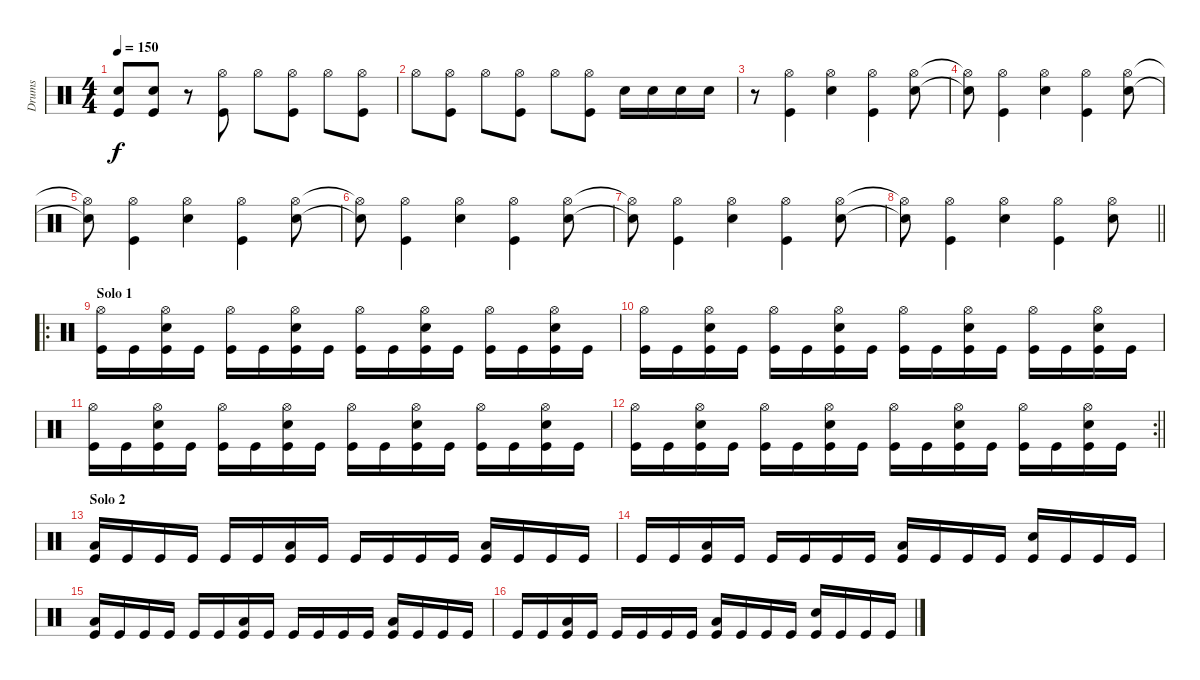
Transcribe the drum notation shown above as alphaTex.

\track ("Drums" "Drums") {instrument percussion}
\staff {score}
\articulation defaults
\ts (4 4)
\tempo 150
\clef neutral
\ks c
("Snare (hit) 2" "Kick (hit)").8{dy f} ("Snare (hit) 2" "Kick (hit)").8 r.8 ("Hi-Hat (open)" "Kick (hit)").8 "Hi-Hat (open)".8 ("Hi-Hat (open)" "Kick (hit)").8 "Hi-Hat (open)".8 ("Hi-Hat (open)" "Kick (hit)").8 |
"Hi-Hat (open)".8 ("Hi-Hat (open)" "Kick (hit)").8 "Hi-Hat (open)".8 ("Hi-Hat (open)" "Kick (hit)").8 "Hi-Hat (open)".8 ("Hi-Hat (open)" "Kick (hit)").8 "Snare (hit) 2".16 "Snare (hit) 2".16 "Snare (hit) 2".16 "Snare (hit) 2".16 |
r.8 ("Hi-Hat (open)" "Kick (hit)").4 ("Hi-Hat (open)" "Snare (hit) 2").4 ("Hi-Hat (open)" "Kick (hit)").4 ("Hi-Hat (open)" "Snare (hit) 2").8 |
("Hi-Hat (open)"{t} "Snare (hit) 2"{t}).8 ("Hi-Hat (open)" "Kick (hit)").4 ("Hi-Hat (open)" "Snare (hit) 2").4 ("Hi-Hat (open)" "Kick (hit)").4 ("Hi-Hat (open)" "Snare (hit) 2").8 |
("Hi-Hat (open)"{t} "Snare (hit) 2"{t}).8 ("Hi-Hat (open)" "Kick (hit)").4 ("Hi-Hat (open)" "Snare (hit) 2").4 ("Hi-Hat (open)" "Kick (hit)").4 ("Hi-Hat (open)" "Snare (hit) 2").8 |
("Hi-Hat (open)"{t} "Snare (hit) 2"{t}).8 ("Hi-Hat (open)" "Kick (hit)").4 ("Hi-Hat (open)" "Snare (hit) 2").4 ("Hi-Hat (open)" "Kick (hit)").4 ("Hi-Hat (open)" "Snare (hit) 2").8 |
("Hi-Hat (open)"{t} "Snare (hit) 2"{t}).8 ("Hi-Hat (open)" "Kick (hit)").4 ("Hi-Hat (open)" "Snare (hit) 2").4 ("Hi-Hat (open)" "Kick (hit)").4 ("Hi-Hat (open)" "Snare (hit) 2").8 |
\barLineRight lightlight
("Hi-Hat (open)"{t} "Snare (hit) 2"{t}).8 ("Hi-Hat (open)" "Kick (hit)").4 ("Hi-Hat (open)" "Snare (hit) 2").4 ("Hi-Hat (open)" "Kick (hit)").4 ("Hi-Hat (open)" "Snare (hit) 2").8 |
\ro
\section ("" "Solo 1")
("Hi-Hat (open)" "Kick (hit)").16 "Kick (hit)".16 ("Hi-Hat (open)" "Snare (hit) 2" "Kick (hit)").16 "Kick (hit)".16 ("Hi-Hat (open)" "Kick (hit)").16 "Kick (hit)".16 ("Hi-Hat (open)" "Snare (hit) 2" "Kick (hit)").16 "Kick (hit)".16 ("Hi-Hat (open)" "Kick (hit)").16 "Kick (hit)".16 ("Hi-Hat (open)" "Snare (hit) 2" "Kick (hit)").16 "Kick (hit)".16 ("Hi-Hat (open)" "Kick (hit)").16 "Kick (hit)".16 ("Hi-Hat (open)" "Snare (hit) 2" "Kick (hit)").16 "Kick (hit)".16 |
("Hi-Hat (open)" "Kick (hit)").16 "Kick (hit)".16 ("Hi-Hat (open)" "Snare (hit) 2" "Kick (hit)").16 "Kick (hit)".16 ("Hi-Hat (open)" "Kick (hit)").16 "Kick (hit)".16 ("Hi-Hat (open)" "Snare (hit) 2" "Kick (hit)").16 "Kick (hit)".16 ("Hi-Hat (open)" "Kick (hit)").16 "Kick (hit)".16 ("Hi-Hat (open)" "Snare (hit) 2" "Kick (hit)").16 "Kick (hit)".16 ("Hi-Hat (open)" "Kick (hit)").16 "Kick (hit)".16 ("Hi-Hat (open)" "Snare (hit) 2" "Kick (hit)").16 "Kick (hit)".16 |
("Hi-Hat (open)" "Kick (hit)").16 "Kick (hit)".16 ("Hi-Hat (open)" "Snare (hit) 2" "Kick (hit)").16 "Kick (hit)".16 ("Hi-Hat (open)" "Kick (hit)").16 "Kick (hit)".16 ("Hi-Hat (open)" "Snare (hit) 2" "Kick (hit)").16 "Kick (hit)".16 ("Hi-Hat (open)" "Kick (hit)").16 "Kick (hit)".16 ("Hi-Hat (open)" "Snare (hit) 2" "Kick (hit)").16 "Kick (hit)".16 ("Hi-Hat (open)" "Kick (hit)").16 "Kick (hit)".16 ("Hi-Hat (open)" "Snare (hit) 2" "Kick (hit)").16 "Kick (hit)".16 |
\rc 2
\barLineRight lightlight
("Hi-Hat (open)" "Kick (hit)").16 "Kick (hit)".16 ("Hi-Hat (open)" "Snare (hit) 2" "Kick (hit)").16 "Kick (hit)".16 ("Hi-Hat (open)" "Kick (hit)").16 "Kick (hit)".16 ("Hi-Hat (open)" "Snare (hit) 2" "Kick (hit)").16 "Kick (hit)".16 ("Hi-Hat (open)" "Kick (hit)").16 "Kick (hit)".16 ("Hi-Hat (open)" "Snare (hit) 2" "Kick (hit)").16 "Kick (hit)".16 ("Hi-Hat (open)" "Kick (hit)").16 "Kick (hit)".16 ("Hi-Hat (open)" "Snare (hit) 2" "Kick (hit)").16 "Kick (hit)".16 |
\section ("" "Solo 2")
("Low Floor Tom (hit)" "Kick (hit)").16 "Kick (hit)".16 "Kick (hit)".16 "Kick (hit)".16 "Kick (hit)".16 "Kick (hit)".16 ("Low Floor Tom (hit)" "Kick (hit)").16 "Kick (hit)".16 "Kick (hit)".16 "Kick (hit)".16 "Kick (hit)".16 "Kick (hit)".16 ("Low Floor Tom (hit)" "Kick (hit)").16 "Kick (hit)".16 "Kick (hit)".16 "Kick (hit)".16 |
"Kick (hit)".16 "Kick (hit)".16 ("Low Floor Tom (hit)" "Kick (hit)").16 "Kick (hit)".16 "Kick (hit)".16 "Kick (hit)".16 "Kick (hit)".16 "Kick (hit)".16 ("Low Floor Tom (hit)" "Kick (hit)").16 "Kick (hit)".16 "Kick (hit)".16 "Kick (hit)".16 ("Snare (hit) 2" "Kick (hit)").16 "Kick (hit)".16 "Kick (hit)".16 "Kick (hit)".16 |
("Low Floor Tom (hit)" "Kick (hit)").16 "Kick (hit)".16 "Kick (hit)".16 "Kick (hit)".16 "Kick (hit)".16 "Kick (hit)".16 ("Low Floor Tom (hit)" "Kick (hit)").16 "Kick (hit)".16 "Kick (hit)".16 "Kick (hit)".16 "Kick (hit)".16 "Kick (hit)".16 ("Low Floor Tom (hit)" "Kick (hit)").16 "Kick (hit)".16 "Kick (hit)".16 "Kick (hit)".16 |
"Kick (hit)".16 "Kick (hit)".16 ("Low Floor Tom (hit)" "Kick (hit)").16 "Kick (hit)".16 "Kick (hit)".16 "Kick (hit)".16 "Kick (hit)".16 "Kick (hit)".16 ("Low Floor Tom (hit)" "Kick (hit)").16 "Kick (hit)".16 "Kick (hit)".16 "Kick (hit)".16 ("Snare (hit) 2" "Kick (hit)").16 "Kick (hit)".16 "Kick (hit)".16 "Kick (hit)".16
